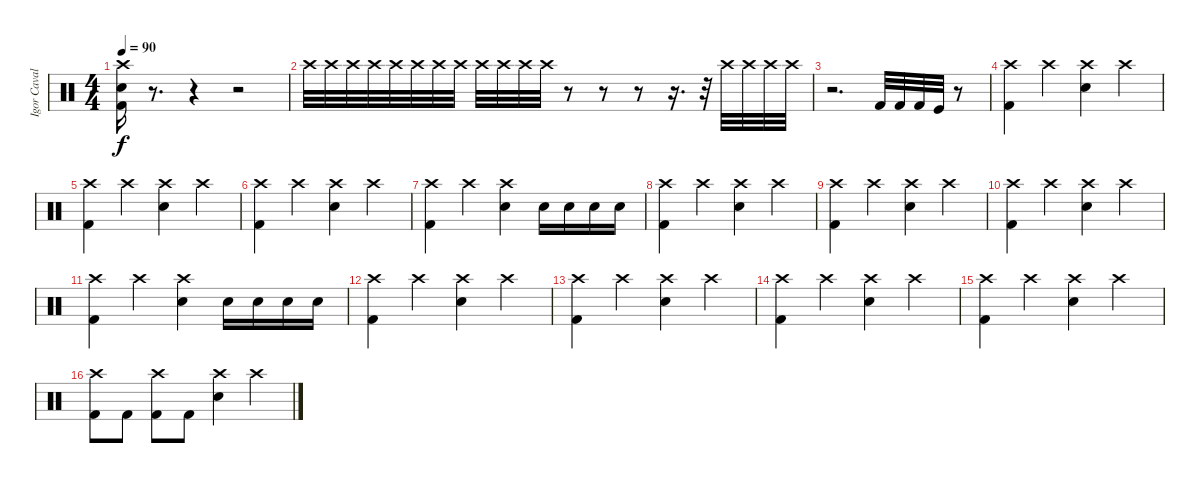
\track ("Igor Cavalera" "Igor Caval") {instrument percussion}
\staff {score}
\articulation defaults
\ts (4 4)
\tempo 90
\clef neutral
\ks c
("Crash high (hit)" "Kick (hit) 2" "Snare (hit) 2").16{dy f} r.8{d} r.4 r.2{volume 3} |
"Crash high (hit)".32{volume 13} "Crash high (hit)".32 "Crash high (hit)".32 "Crash high (hit)".32 "Crash high (hit)".32 "Crash high (hit)".32 "Crash high (hit)".32 "Crash high (hit)".32 "Crash high (hit)".32 "Crash high (hit)".32 "Crash high (hit)".32 "Crash high (hit)".32 r.8 r.8 r.8 r.16{d} r.32{volume 5} "Crash high (hit)".32{volume 13} "Crash high (hit)".32 "Crash high (hit)".32 "Crash high (hit)".32 |
r.2{d} "Kick (hit) 2".32 "Kick (hit) 2".32 "Kick (hit) 2".32 "Kick (hit)".32 r.8 |
\section ("" "")
("Crash high (hit)" "Kick (hit) 2").4 "Crash high (hit)".4 ("Crash high (hit)" "Snare (hit) 2").4 "Crash high (hit)".4 |
("Crash high (hit)" "Kick (hit) 2").4 "Crash high (hit)".4 ("Crash high (hit)" "Snare (hit) 2").4 "Crash high (hit)".4 |
("Crash high (hit)" "Kick (hit) 2").4 "Crash high (hit)".4 ("Crash high (hit)" "Snare (hit) 2").4 "Crash high (hit)".4 |
("Crash high (hit)" "Kick (hit) 2").4 "Crash high (hit)".4 ("Crash high (hit)" "Snare (hit) 2").4 "Snare (hit) 2".16 "Snare (hit) 2".16 "Snare (hit) 2".16 "Snare (hit) 2".16 |
("Crash high (hit)" "Kick (hit) 2").4 "Crash high (hit)".4 ("Crash high (hit)" "Snare (hit) 2").4 "Crash high (hit)".4 |
("Crash high (hit)" "Kick (hit) 2").4 "Crash high (hit)".4 ("Crash high (hit)" "Snare (hit) 2").4 "Crash high (hit)".4 |
("Crash high (hit)" "Kick (hit) 2").4 "Crash high (hit)".4 ("Crash high (hit)" "Snare (hit) 2").4 "Crash high (hit)".4 |
("Crash high (hit)" "Kick (hit) 2").4 "Crash high (hit)".4 ("Crash high (hit)" "Snare (hit) 2").4 "Snare (hit) 2".16 "Snare (hit) 2".16 "Snare (hit) 2".16 "Snare (hit) 2".16 |
("Crash high (hit)" "Kick (hit) 2").4 "Crash high (hit)".4 ("Crash high (hit)" "Snare (hit) 2").4 "Crash high (hit)".4 |
("Crash high (hit)" "Kick (hit) 2").4 "Crash high (hit)".4 ("Crash high (hit)" "Snare (hit) 2").4 "Crash high (hit)".4 |
("Crash high (hit)" "Kick (hit) 2").4 "Crash high (hit)".4 ("Crash high (hit)" "Snare (hit) 2").4 "Crash high (hit)".4 |
("Crash high (hit)" "Kick (hit) 2").4 "Crash high (hit)".4 ("Crash high (hit)" "Snare (hit) 2").4 "Crash high (hit)".4 |
("Crash high (hit)" "Kick (hit) 2").8 "Kick (hit) 2".8 ("Crash high (hit)" "Kick (hit) 2").8 "Kick (hit) 2".8 ("Crash high (hit)" "Snare (hit) 2").4 "Crash high (hit)".4
